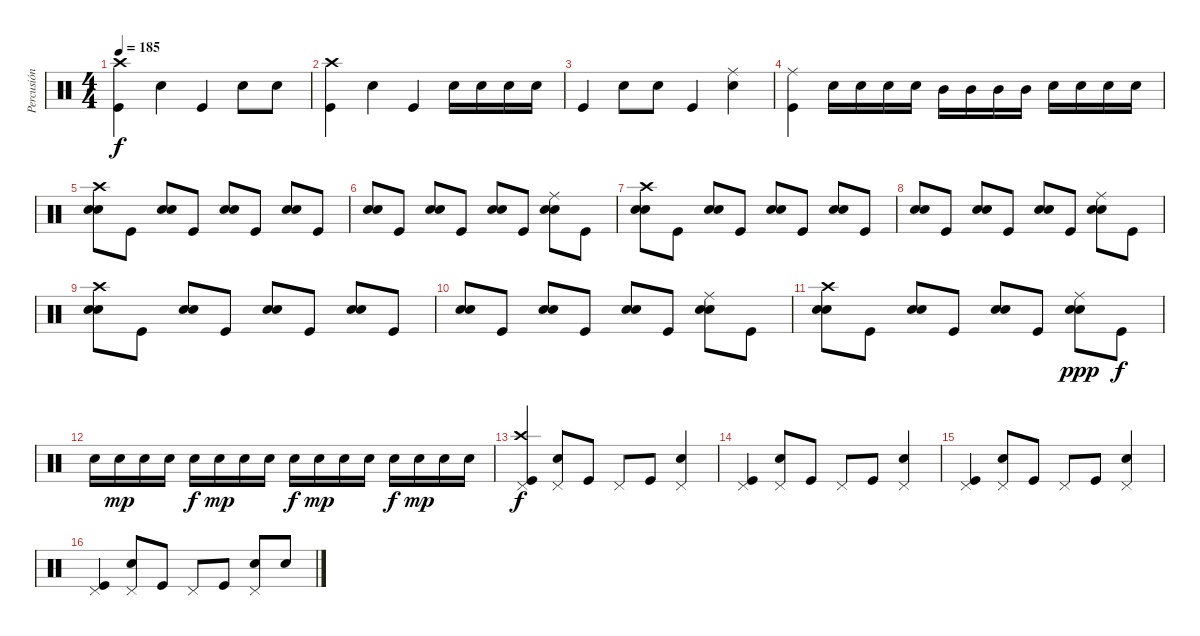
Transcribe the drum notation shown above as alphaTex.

\track ("Percusión" "Percusión") {instrument percussion}
\staff {score}
\articulation defaults
\ts (4 4)
\tempo 185
\clef neutral
\ks c
("Kick (hit)" "Crash high (hit)").4{dy f} "Snare (hit) 2".4 "Kick (hit)".4 "Snare (hit) 2".8 "Snare (hit) 2".8 |
("Kick (hit)" "Crash high (hit)").4 "Snare (hit) 2".4 "Kick (hit)".4 "Snare (hit) 2".16 "Snare (hit) 2".16 "Snare (hit) 2".16 "Snare (hit) 2".16 |
"Kick (hit)".4 "Snare (hit) 2".8 "Snare (hit) 2".8 "Kick (hit)".4 ("Snare (hit) 2" "Ride (middle)").4 |
("Kick (hit)" "Ride (middle)").4 "Snare (hit) 2".16 "Snare (hit) 2".16 "Snare (hit) 2".16 "Snare (hit) 2".16 "Mid Tom (hit)".16 "Mid Tom (hit)".16 "Mid Tom (hit)".16 "Mid Tom (hit)".16 "Snare (hit) 2".16 "Snare (hit) 2".16 "Snare (hit) 2".16 "Snare (hit) 2".16 |
("Snare (hit) 2" "Snare (hit) 2" "Crash high (hit)").8 "Kick (hit)".8 ("Snare (hit) 2" "Snare (hit) 2").8 "Kick (hit)".8 ("Snare (hit) 2" "Snare (hit) 2").8 "Kick (hit)".8 ("Snare (hit) 2" "Snare (hit) 2").8 "Kick (hit)".8 |
("Snare (hit) 2" "Snare (hit) 2").8 "Kick (hit)".8 ("Snare (hit) 2" "Snare (hit) 2").8 "Kick (hit)".8 ("Snare (hit) 2" "Snare (hit) 2").8 "Kick (hit)".8 ("Snare (hit) 2" "Snare (hit) 2" "Ride (middle)").8 "Kick (hit)".8 |
("Snare (hit) 2" "Snare (hit) 2" "Crash high (hit)").8 "Kick (hit)".8 ("Snare (hit) 2" "Snare (hit) 2").8 "Kick (hit)".8 ("Snare (hit) 2" "Snare (hit) 2").8 "Kick (hit)".8 ("Snare (hit) 2" "Snare (hit) 2").8 "Kick (hit)".8 |
("Snare (hit) 2" "Snare (hit) 2").8 "Kick (hit)".8 ("Snare (hit) 2" "Snare (hit) 2").8 "Kick (hit)".8 ("Snare (hit) 2" "Snare (hit) 2").8 "Kick (hit)".8 ("Snare (hit) 2" "Snare (hit) 2" "Ride (middle)").8 "Kick (hit)".8 |
("Snare (hit) 2" "Snare (hit) 2" "Crash high (hit)").8 "Kick (hit)".8 ("Snare (hit) 2" "Snare (hit) 2").8 "Kick (hit)".8 ("Snare (hit) 2" "Snare (hit) 2").8 "Kick (hit)".8 ("Snare (hit) 2" "Snare (hit) 2").8 "Kick (hit)".8 |
("Snare (hit) 2" "Snare (hit) 2").8 "Kick (hit)".8 ("Snare (hit) 2" "Snare (hit) 2").8 "Kick (hit)".8 ("Snare (hit) 2" "Snare (hit) 2").8 "Kick (hit)".8 ("Snare (hit) 2" "Snare (hit) 2" "Ride (middle)").8 "Kick (hit)".8 |
("Snare (hit) 2" "Snare (hit) 2" "Crash high (hit)").8 "Kick (hit)".8 ("Snare (hit) 2" "Snare (hit) 2").8 "Kick (hit)".8 ("Snare (hit) 2" "Snare (hit) 2").8 "Kick (hit)".8 ("Snare (hit) 2" "Snare (hit) 2" "Ride (middle)").8{dy ppp} "Kick (hit)".8{dy f} |
"Snare (hit) 2".16 "Snare (hit) 2".16{dy mp} "Snare (hit) 2".16 "Snare (hit) 2".16 "Snare (hit) 2".16{dy f} "Snare (hit) 2".16{dy mp} "Snare (hit) 2".16 "Snare (hit) 2".16 "Snare (hit) 2".16{dy f} "Snare (hit) 2".16{dy mp} "Snare (hit) 2".16 "Snare (hit) 2".16 "Snare (hit) 2".16{dy f} "Snare (hit) 2".16{dy mp} "Snare (hit) 2".16 "Snare (hit) 2".16 |
("Kick (hit)" "Pedal Hi-Hat (hit)" "Crash high (hit)").4{dy f} ("Snare (hit) 2" "Pedal Hi-Hat (hit)").8 "Kick (hit)".8 "Pedal Hi-Hat (hit)".8 "Kick (hit)".8 ("Snare (hit) 2" "Pedal Hi-Hat (hit)").4 |
("Kick (hit)" "Pedal Hi-Hat (hit)").4 ("Snare (hit) 2" "Pedal Hi-Hat (hit)").8 "Kick (hit)".8 "Pedal Hi-Hat (hit)".8 "Kick (hit)".8 ("Snare (hit) 2" "Pedal Hi-Hat (hit)").4 |
("Kick (hit)" "Pedal Hi-Hat (hit)").4 ("Snare (hit) 2" "Pedal Hi-Hat (hit)").8 "Kick (hit)".8 "Pedal Hi-Hat (hit)".8 "Kick (hit)".8 ("Snare (hit) 2" "Pedal Hi-Hat (hit)").4 |
("Kick (hit)" "Pedal Hi-Hat (hit)").4 ("Snare (hit) 2" "Pedal Hi-Hat (hit)").8 "Kick (hit)".8 "Pedal Hi-Hat (hit)".8 "Kick (hit)".8 ("Snare (hit) 2" "Pedal Hi-Hat (hit)").8 "Snare (hit) 2".8
